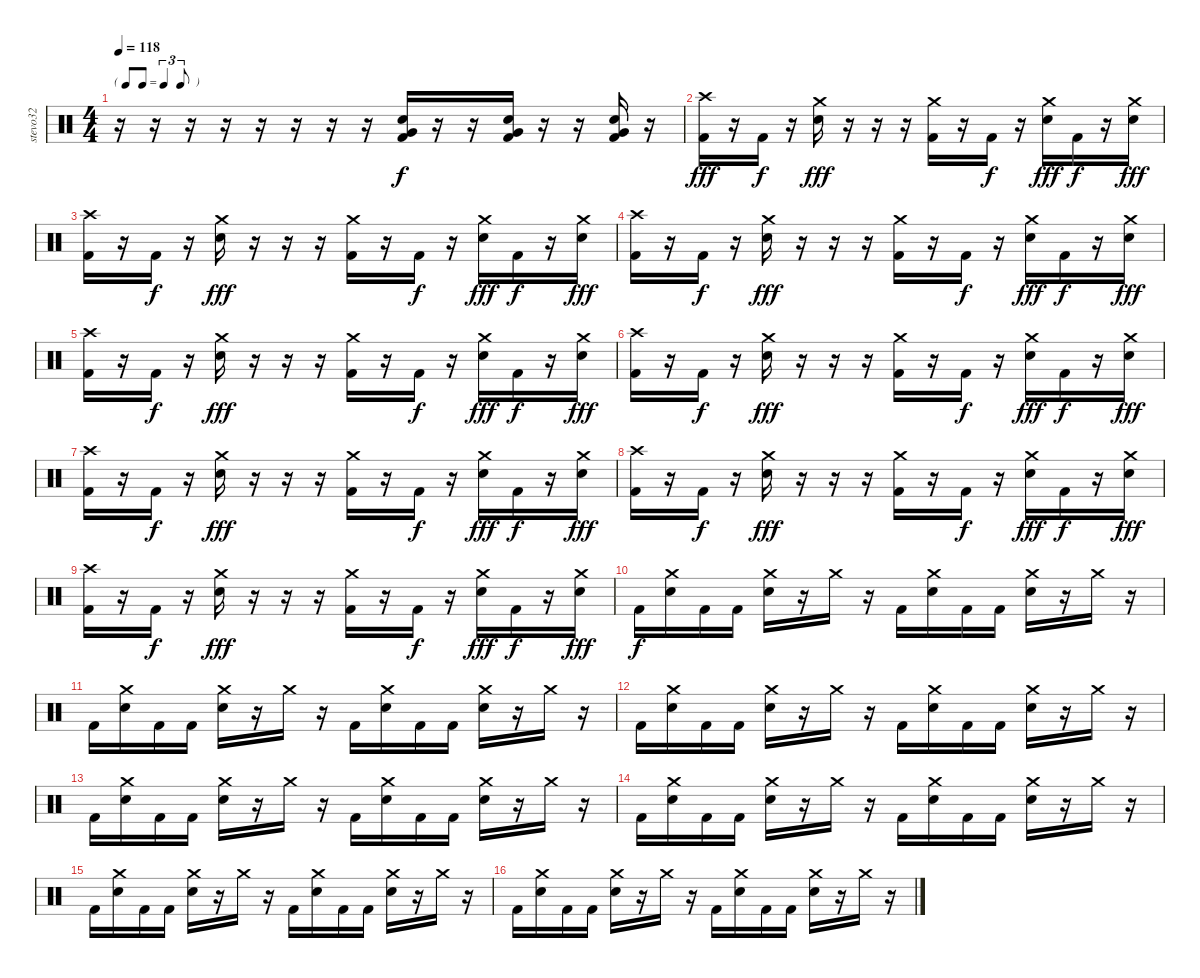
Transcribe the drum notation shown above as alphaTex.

\track ("stevo32" "stevo32") {instrument percussion}
\staff {score}
\articulation defaults
\ts (4 4)
\tf triplet8th
\tempo 118
\clef neutral
\ks c
r.16{dy mp} r.16 r.16 r.16 r.16 r.16 r.16 r.16 ("Very Low Tom (hit)" "Electric Snare (hit)" "Kick (hit) 2").16{dy f} r.16 r.16 ("Very Low Tom (hit)" "Electric Snare (hit)" "Kick (hit) 2").16 r.16 r.16 ("Very Low Tom (hit)" "Electric Snare (hit)" "Kick (hit) 2").16 r.16 |
("Crash high (hit)" "Kick (hit) 2").16{dy fff} r.16 "Kick (hit) 2".16{dy f} r.16 ("Crash medium (hit)" "Electric Snare (hit)").16{dy fff} r.16 r.16 r.16 ("Crash medium (hit)" "Kick (hit) 2").16 r.16 "Kick (hit) 2".16{dy f} r.16 ("Crash medium (hit)" "Electric Snare (hit)").16{dy fff} "Kick (hit) 2".16{dy f} r.16 ("Crash medium (hit)" "Electric Snare (hit)").16{dy fff} |
("Crash high (hit)" "Kick (hit) 2").16 r.16 "Kick (hit) 2".16{dy f} r.16 ("Crash medium (hit)" "Electric Snare (hit)").16{dy fff} r.16 r.16 r.16 ("Crash medium (hit)" "Kick (hit) 2").16 r.16 "Kick (hit) 2".16{dy f} r.16 ("Crash medium (hit)" "Electric Snare (hit)").16{dy fff} "Kick (hit) 2".16{dy f} r.16 ("Crash medium (hit)" "Electric Snare (hit)").16{dy fff} |
("Crash high (hit)" "Kick (hit) 2").16 r.16 "Kick (hit) 2".16{dy f} r.16 ("Crash medium (hit)" "Electric Snare (hit)").16{dy fff} r.16 r.16 r.16 ("Crash medium (hit)" "Kick (hit) 2").16 r.16 "Kick (hit) 2".16{dy f} r.16 ("Crash medium (hit)" "Electric Snare (hit)").16{dy fff} "Kick (hit) 2".16{dy f} r.16 ("Crash medium (hit)" "Electric Snare (hit)").16{dy fff} |
("Crash high (hit)" "Kick (hit) 2").16 r.16 "Kick (hit) 2".16{dy f} r.16 ("Crash medium (hit)" "Electric Snare (hit)").16{dy fff} r.16 r.16 r.16 ("Crash medium (hit)" "Kick (hit) 2").16 r.16 "Kick (hit) 2".16{dy f} r.16 ("Crash medium (hit)" "Electric Snare (hit)").16{dy fff} "Kick (hit) 2".16{dy f} r.16 ("Crash medium (hit)" "Electric Snare (hit)").16{dy fff} |
("Crash high (hit)" "Kick (hit) 2").16 r.16 "Kick (hit) 2".16{dy f} r.16 ("Crash medium (hit)" "Electric Snare (hit)").16{dy fff} r.16 r.16 r.16 ("Crash medium (hit)" "Kick (hit) 2").16 r.16 "Kick (hit) 2".16{dy f} r.16 ("Crash medium (hit)" "Electric Snare (hit)").16{dy fff} "Kick (hit) 2".16{dy f} r.16 ("Crash medium (hit)" "Electric Snare (hit)").16{dy fff} |
("Crash high (hit)" "Kick (hit) 2").16 r.16 "Kick (hit) 2".16{dy f} r.16 ("Crash medium (hit)" "Electric Snare (hit)").16{dy fff} r.16 r.16 r.16 ("Crash medium (hit)" "Kick (hit) 2").16 r.16 "Kick (hit) 2".16{dy f} r.16 ("Crash medium (hit)" "Electric Snare (hit)").16{dy fff} "Kick (hit) 2".16{dy f} r.16 ("Crash medium (hit)" "Electric Snare (hit)").16{dy fff} |
("Crash high (hit)" "Kick (hit) 2").16 r.16 "Kick (hit) 2".16{dy f} r.16 ("Crash medium (hit)" "Electric Snare (hit)").16{dy fff} r.16 r.16 r.16 ("Crash medium (hit)" "Kick (hit) 2").16 r.16 "Kick (hit) 2".16{dy f} r.16 ("Crash medium (hit)" "Electric Snare (hit)").16{dy fff} "Kick (hit) 2".16{dy f} r.16 ("Crash medium (hit)" "Electric Snare (hit)").16{dy fff} |
("Crash high (hit)" "Kick (hit) 2").16 r.16 "Kick (hit) 2".16{dy f} r.16 ("Crash medium (hit)" "Electric Snare (hit)").16{dy fff} r.16 r.16 r.16 ("Crash medium (hit)" "Kick (hit) 2").16 r.16 "Kick (hit) 2".16{dy f} r.16 ("Crash medium (hit)" "Electric Snare (hit)").16{dy fff} "Kick (hit) 2".16{dy f} r.16 ("Crash medium (hit)" "Electric Snare (hit)").16{dy fff} |
"Kick (hit) 2".16{dy f} ("Crash medium (hit)" "Electric Snare (hit)").16 "Kick (hit) 2".16 "Kick (hit) 2".16 ("Crash medium (hit)" "Electric Snare (hit)").16 r.16 "Crash medium (hit)".16 r.16 "Kick (hit) 2".16 ("Crash medium (hit)" "Electric Snare (hit)").16 "Kick (hit) 2".16 "Kick (hit) 2".16 ("Crash medium (hit)" "Electric Snare (hit)").16 r.16 "Crash medium (hit)".16 r.16 |
"Kick (hit) 2".16 ("Crash medium (hit)" "Electric Snare (hit)").16 "Kick (hit) 2".16 "Kick (hit) 2".16 ("Crash medium (hit)" "Electric Snare (hit)").16 r.16 "Crash medium (hit)".16 r.16 "Kick (hit) 2".16 ("Crash medium (hit)" "Electric Snare (hit)").16 "Kick (hit) 2".16 "Kick (hit) 2".16 ("Crash medium (hit)" "Electric Snare (hit)").16 r.16 "Crash medium (hit)".16 r.16 |
"Kick (hit) 2".16 ("Crash medium (hit)" "Electric Snare (hit)").16 "Kick (hit) 2".16 "Kick (hit) 2".16 ("Crash medium (hit)" "Electric Snare (hit)").16 r.16 "Crash medium (hit)".16 r.16 "Kick (hit) 2".16 ("Crash medium (hit)" "Electric Snare (hit)").16 "Kick (hit) 2".16 "Kick (hit) 2".16 ("Crash medium (hit)" "Electric Snare (hit)").16 r.16 "Crash medium (hit)".16 r.16 |
"Kick (hit) 2".16 ("Crash medium (hit)" "Electric Snare (hit)").16 "Kick (hit) 2".16 "Kick (hit) 2".16 ("Crash medium (hit)" "Electric Snare (hit)").16 r.16 "Crash medium (hit)".16 r.16 "Kick (hit) 2".16 ("Crash medium (hit)" "Electric Snare (hit)").16 "Kick (hit) 2".16 "Kick (hit) 2".16 ("Crash medium (hit)" "Electric Snare (hit)").16 r.16 "Crash medium (hit)".16 r.16 |
"Kick (hit) 2".16 ("Crash medium (hit)" "Electric Snare (hit)").16 "Kick (hit) 2".16 "Kick (hit) 2".16 ("Crash medium (hit)" "Electric Snare (hit)").16 r.16 "Crash medium (hit)".16 r.16 "Kick (hit) 2".16 ("Crash medium (hit)" "Electric Snare (hit)").16 "Kick (hit) 2".16 "Kick (hit) 2".16 ("Crash medium (hit)" "Electric Snare (hit)").16 r.16 "Crash medium (hit)".16 r.16 |
"Kick (hit) 2".16 ("Crash medium (hit)" "Electric Snare (hit)").16 "Kick (hit) 2".16 "Kick (hit) 2".16 ("Crash medium (hit)" "Electric Snare (hit)").16 r.16 "Crash medium (hit)".16 r.16 "Kick (hit) 2".16 ("Crash medium (hit)" "Electric Snare (hit)").16 "Kick (hit) 2".16 "Kick (hit) 2".16 ("Crash medium (hit)" "Electric Snare (hit)").16 r.16 "Crash medium (hit)".16 r.16 |
"Kick (hit) 2".16 ("Crash medium (hit)" "Electric Snare (hit)").16 "Kick (hit) 2".16 "Kick (hit) 2".16 ("Crash medium (hit)" "Electric Snare (hit)").16 r.16 "Crash medium (hit)".16 r.16 "Kick (hit) 2".16 ("Crash medium (hit)" "Electric Snare (hit)").16 "Kick (hit) 2".16 "Kick (hit) 2".16 ("Crash medium (hit)" "Electric Snare (hit)").16 r.16 "Crash medium (hit)".16 r.16
